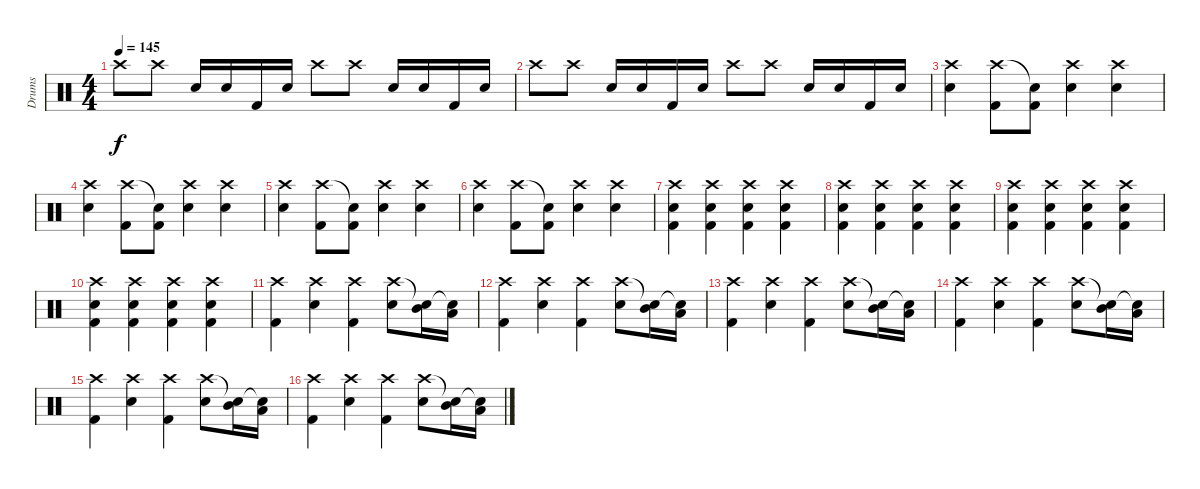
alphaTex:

\track ("Drums" "Drums") {instrument percussion}
\staff {score}
\articulation defaults
\ts (4 4)
\tempo 145
\clef neutral
\ks c "Crash high (hit)".8{dy f} "Crash high (hit)".8 "Snare (hit) 2".16 "Snare (hit) 2".16 "Kick (hit) 2".16 "Snare (hit) 2".16 "Crash high (hit)".8 "Crash high (hit)".8 "Snare (hit) 2".16 "Snare (hit) 2".16 "Kick (hit) 2".16 "Snare (hit) 2".16
|
"Crash high (hit)".8 "Crash high (hit)".8 "Snare (hit) 2".16 "Snare (hit) 2".16 "Kick (hit) 2".16 "Snare (hit) 2".16 "Crash high (hit)".8 "Crash high (hit)".8 "Snare (hit) 2".16 "Snare (hit) 2".16 "Kick (hit) 2".16 "Snare (hit) 2".16 |
("Crash high (hit)" "Snare (hit) 2").4 ("Crash high (hit)" "Kick (hit) 2").8 ("Snare (hit)"{t} "Kick (hit) 2").8 ("Crash high (hit)" "Snare (hit) 2").4 ("Crash high (hit)" "Snare (hit) 2").4 |
("Crash high (hit)" "Snare (hit) 2").4 ("Crash high (hit)" "Kick (hit) 2").8 ("Snare (hit)"{t} "Kick (hit) 2").8 ("Crash high (hit)" "Snare (hit) 2").4 ("Crash high (hit)" "Snare (hit) 2").4 |
("Crash high (hit)" "Snare (hit) 2").4 ("Crash high (hit)" "Kick (hit) 2").8 ("Snare (hit)"{t} "Kick (hit) 2").8 ("Crash high (hit)" "Snare (hit) 2").4 ("Crash high (hit)" "Snare (hit) 2").4 |
("Crash high (hit)" "Snare (hit) 2").4 ("Crash high (hit)" "Kick (hit) 2").8 ("Snare (hit)"{t} "Kick (hit) 2").8 ("Crash high (hit)" "Snare (hit) 2").4 ("Crash high (hit)" "Snare (hit) 2").4 |
("Crash high (hit)" "Snare (hit) 2" "Kick (hit) 2").4 ("Crash high (hit)" "Snare (hit) 2" "Kick (hit) 2").4 ("Crash high (hit)" "Snare (hit) 2" "Kick (hit) 2").4 ("Crash high (hit)" "Snare (hit) 2" "Kick (hit) 2").4 |
("Crash high (hit)" "Snare (hit) 2" "Kick (hit) 2").4 ("Crash high (hit)" "Snare (hit) 2" "Kick (hit) 2").4 ("Crash high (hit)" "Snare (hit) 2" "Kick (hit) 2").4 ("Crash high (hit)" "Snare (hit) 2" "Kick (hit) 2").4 |
("Crash high (hit)" "Snare (hit) 2" "Kick (hit) 2").4 ("Crash high (hit)" "Snare (hit) 2" "Kick (hit) 2").4 ("Crash high (hit)" "Snare (hit) 2" "Kick (hit) 2").4 ("Crash high (hit)" "Snare (hit) 2" "Kick (hit) 2").4 |
("Crash high (hit)" "Snare (hit) 2" "Kick (hit) 2").4 ("Crash high (hit)" "Snare (hit) 2" "Kick (hit) 2").4 ("Crash high (hit)" "Snare (hit) 2" "Kick (hit) 2").4 ("Crash high (hit)" "Snare (hit) 2" "Kick (hit) 2").4 |
("Crash high (hit)" "Kick (hit) 2").4 ("Crash high (hit)" "Snare (hit) 2").4 ("Crash high (hit)" "Kick (hit) 2").4 ("Crash high (hit)" "Snare (hit) 2").8 ("Snare (hit)"{t} "Mid Tom (hit)").16 ("Snare (hit)"{t} "Low Tom (hit)").16 |
("Crash high (hit)" "Kick (hit) 2").4 ("Crash high (hit)" "Snare (hit) 2").4 ("Crash high (hit)" "Kick (hit) 2").4 ("Crash high (hit)" "Snare (hit) 2").8 ("Snare (hit)"{t} "Mid Tom (hit)").16 ("Snare (hit)"{t} "Low Tom (hit)").16 |
("Crash high (hit)" "Kick (hit) 2").4 ("Crash high (hit)" "Snare (hit) 2").4 ("Crash high (hit)" "Kick (hit) 2").4 ("Crash high (hit)" "Snare (hit) 2").8 ("Snare (hit)"{t} "Mid Tom (hit)").16 ("Snare (hit)"{t} "Low Tom (hit)").16 |
("Crash high (hit)" "Kick (hit) 2").4 ("Crash high (hit)" "Snare (hit) 2").4 ("Crash high (hit)" "Kick (hit) 2").4 ("Crash high (hit)" "Snare (hit) 2").8 ("Snare (hit)"{t} "Mid Tom (hit)").16 ("Snare (hit)"{t} "Low Tom (hit)").16 |
("Crash high (hit)" "Kick (hit) 2").4 ("Crash high (hit)" "Snare (hit) 2").4 ("Crash high (hit)" "Kick (hit) 2").4 ("Crash high (hit)" "Snare (hit) 2").8 ("Snare (hit)"{t} "Mid Tom (hit)").16 ("Snare (hit)"{t} "Low Tom (hit)").16 |
("Crash high (hit)" "Kick (hit) 2").4 ("Crash high (hit)" "Snare (hit) 2").4 ("Crash high (hit)" "Kick (hit) 2").4 ("Crash high (hit)" "Snare (hit) 2").8 ("Snare (hit)"{t} "Mid Tom (hit)").16 ("Snare (hit)"{t} "Low Tom (hit)").16
